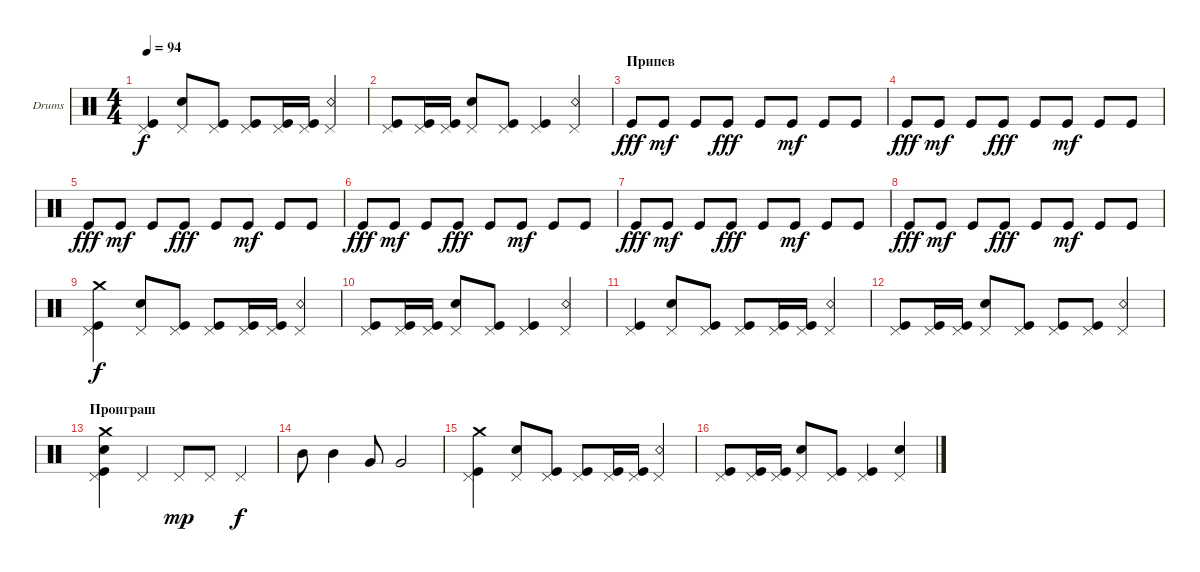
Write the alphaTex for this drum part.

\defaultSystemsLayout 4
\bracketExtendMode groupsimilarinstruments
\firstSystemTrackNameOrientation horizontal
\otherSystemsTrackNameOrientation horizontal
\track ("Е. Кулаков" "Drums") {instrument percussion}
\staff {score}
\articulation defaults
\ts (4 4)
\tempo 94
\clef neutral
\ks c
("Kick (hit)" "Pedal Hi-Hat (hit)").4{dy f} ("Snare (hit) 2" "Pedal Hi-Hat (hit)").8 ("Kick (hit)" "Pedal Hi-Hat (hit)").8 ("Kick (hit)" "Pedal Hi-Hat (hit)").8 ("Kick (hit)" "Pedal Hi-Hat (hit)").16 ("Kick (hit)" "Pedal Hi-Hat (hit)").16 ("Snare (rim shot)" "Pedal Hi-Hat (hit)").4 |
("Kick (hit)" "Pedal Hi-Hat (hit)").8 ("Pedal Hi-Hat (hit)" "Kick (hit)").16 ("Pedal Hi-Hat (hit)" "Kick (hit)").16 ("Snare (hit) 2" "Pedal Hi-Hat (hit)").8 ("Kick (hit)" "Pedal Hi-Hat (hit)").8 ("Kick (hit)" "Pedal Hi-Hat (hit)").4 ("Snare (rim shot)" "Pedal Hi-Hat (hit)").4 |
\section ("" "Припев")
"Kick (hit)".8{dy fff} "Kick (hit)".8{dy mf} "Kick (hit)".8 "Kick (hit)".8{dy fff} "Kick (hit)".8 "Kick (hit)".8{dy mf} "Kick (hit)".8 "Kick (hit)".8 |
"Kick (hit)".8{dy fff} "Kick (hit)".8{dy mf} "Kick (hit)".8 "Kick (hit)".8{dy fff} "Kick (hit)".8 "Kick (hit)".8{dy mf} "Kick (hit)".8 "Kick (hit)".8 |
"Kick (hit)".8{dy fff} "Kick (hit)".8{dy mf} "Kick (hit)".8 "Kick (hit)".8{dy fff} "Kick (hit)".8 "Kick (hit)".8{dy mf} "Kick (hit)".8 "Kick (hit)".8 |
"Kick (hit)".8{dy fff} "Kick (hit)".8{dy mf} "Kick (hit)".8 "Kick (hit)".8{dy fff} "Kick (hit)".8 "Kick (hit)".8{dy mf} "Kick (hit)".8 "Kick (hit)".8 |
"Kick (hit)".8{dy fff} "Kick (hit)".8{dy mf} "Kick (hit)".8 "Kick (hit)".8{dy fff} "Kick (hit)".8 "Kick (hit)".8{dy mf} "Kick (hit)".8 "Kick (hit)".8 |
"Kick (hit)".8{dy fff} "Kick (hit)".8{dy mf} "Kick (hit)".8 "Kick (hit)".8{dy fff} "Kick (hit)".8 "Kick (hit)".8{dy mf} "Kick (hit)".8 "Kick (hit)".8 |
("Kick (hit)" "Pedal Hi-Hat (hit)" "Crash medium (hit)").4{dy f} ("Snare (hit) 2" "Pedal Hi-Hat (hit)").8 ("Kick (hit)" "Pedal Hi-Hat (hit)").8 ("Kick (hit)" "Pedal Hi-Hat (hit)").8 ("Kick (hit)" "Pedal Hi-Hat (hit)").16 ("Kick (hit)" "Pedal Hi-Hat (hit)").16 ("Snare (rim shot)" "Pedal Hi-Hat (hit)").4 |
("Kick (hit)" "Pedal Hi-Hat (hit)").8 ("Pedal Hi-Hat (hit)" "Kick (hit)").16 ("Pedal Hi-Hat (hit)" "Kick (hit)").16 ("Snare (hit) 2" "Pedal Hi-Hat (hit)").8 ("Kick (hit)" "Pedal Hi-Hat (hit)").8 ("Kick (hit)" "Pedal Hi-Hat (hit)").4 ("Snare (rim shot)" "Pedal Hi-Hat (hit)").4 |
("Kick (hit)" "Pedal Hi-Hat (hit)").4 ("Snare (hit) 2" "Pedal Hi-Hat (hit)").8 ("Kick (hit)" "Pedal Hi-Hat (hit)").8 ("Kick (hit)" "Pedal Hi-Hat (hit)").8 ("Kick (hit)" "Pedal Hi-Hat (hit)").16 ("Kick (hit)" "Pedal Hi-Hat (hit)").16 ("Snare (rim shot)" "Pedal Hi-Hat (hit)").4 |
("Kick (hit)" "Pedal Hi-Hat (hit)").8 ("Pedal Hi-Hat (hit)" "Kick (hit)").16 ("Pedal Hi-Hat (hit)" "Kick (hit)").16 ("Snare (hit) 2" "Pedal Hi-Hat (hit)").8 ("Kick (hit)" "Pedal Hi-Hat (hit)").8 ("Kick (hit)" "Pedal Hi-Hat (hit)").8 ("Kick (hit)" "Pedal Hi-Hat (hit)").8 ("Snare (rim shot)" "Pedal Hi-Hat (hit)").4 |
\section ("" "Проиграш")
("Kick (hit)" "Snare (hit) 2" "Pedal Hi-Hat (hit)" "Crash medium (hit)").4 "Pedal Hi-Hat (hit)".4 "Pedal Hi-Hat (hit)".8{dy mp} "Pedal Hi-Hat (hit)".8 "Pedal Hi-Hat (hit)".4{dy f} |
"Mid Tom (hit)".8 "Mid Tom (hit)".4 "Very Low Tom (hit)".8 "Very Low Tom (hit)".2 |
("Kick (hit)" "Pedal Hi-Hat (hit)" "Crash medium (hit)").4 ("Snare (hit) 2" "Pedal Hi-Hat (hit)").8 ("Kick (hit)" "Pedal Hi-Hat (hit)").8 ("Kick (hit)" "Pedal Hi-Hat (hit)").8 ("Kick (hit)" "Pedal Hi-Hat (hit)").16 ("Kick (hit)" "Pedal Hi-Hat (hit)").16 ("Snare (rim shot)" "Pedal Hi-Hat (hit)").4 |
("Kick (hit)" "Pedal Hi-Hat (hit)").8 ("Pedal Hi-Hat (hit)" "Kick (hit)").16 ("Pedal Hi-Hat (hit)" "Kick (hit)").16 ("Snare (hit) 2" "Pedal Hi-Hat (hit)").8 ("Kick (hit)" "Pedal Hi-Hat (hit)").8 ("Kick (hit)" "Pedal Hi-Hat (hit)").4 ("Pedal Hi-Hat (hit)" "Snare (hit) 2").4
